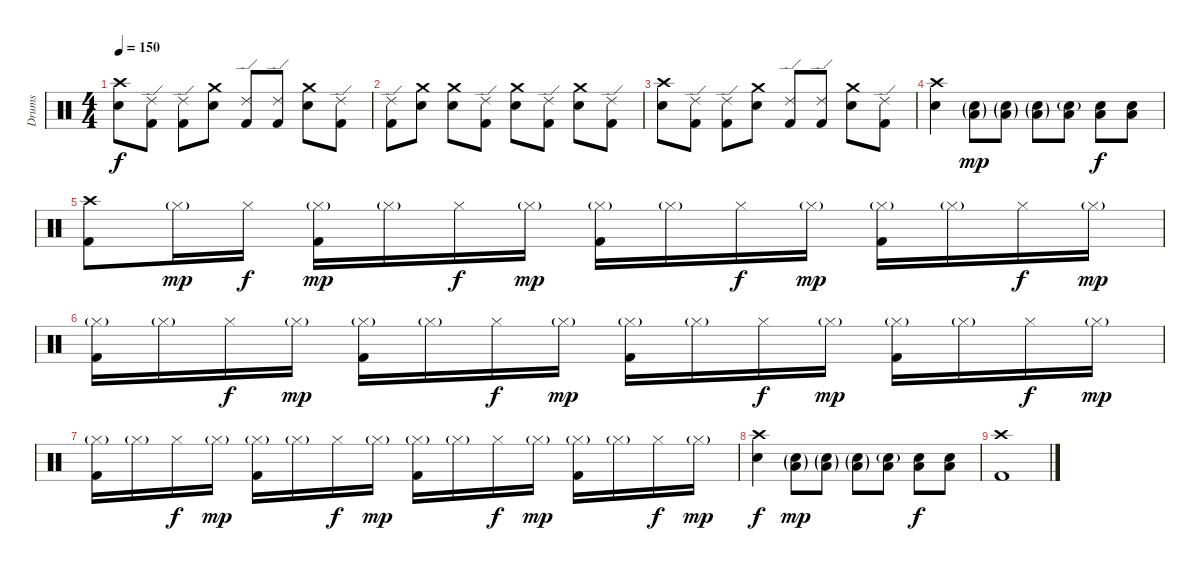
\track ("Drums" "Drums") {instrument percussion}
\staff {score}
\articulation defaults
\ts (4 4)
\tempo 150
\clef neutral
\ks c
("Crash high (hit)" "Electric Snare (hit)").8{dy f} ("Ride (edge) 2" "Kick (hit) 2").8 ("Ride (edge) 2" "Kick (hit) 2").8 ("Crash medium (hit)" "Electric Snare (hit)").8 ("Ride (edge) 2" "Kick (hit) 2").8 ("Ride (edge) 2" "Kick (hit) 2").8 ("Crash medium (hit)" "Electric Snare (hit)").8 ("Ride (edge) 2" "Kick (hit) 2").8 |
("Ride (edge) 2" "Kick (hit) 2").8 ("Crash medium (hit)" "Electric Snare (hit)").8 ("Crash medium (hit)" "Electric Snare (hit)").8 ("Ride (edge) 2" "Kick (hit) 2").8 ("Crash medium (hit)" "Electric Snare (hit)").8 ("Ride (edge) 2" "Kick (hit) 2").8 ("Crash medium (hit)" "Electric Snare (hit)").8 ("Ride (edge) 2" "Kick (hit) 2").8 |
("Crash high (hit)" "Electric Snare (hit)").8 ("Ride (edge) 2" "Kick (hit) 2").8 ("Ride (edge) 2" "Kick (hit) 2").8 ("Crash medium (hit)" "Electric Snare (hit)").8 ("Ride (edge) 2" "Kick (hit) 2").8 ("Ride (edge) 2" "Kick (hit) 2").8 ("Crash medium (hit)" "Electric Snare (hit)").8 ("Ride (edge) 2" "Kick (hit) 2").8 |
("Crash high (hit)" "Electric Snare (hit)").4 ("Low Floor Tom (hit)"{g} "Electric Snare (hit)"{g}).8{dy mp} ("Low Floor Tom (hit)"{g} "Electric Snare (hit)"{g}).8 ("Low Floor Tom (hit)"{g} "Electric Snare (hit)"{g}).8 ("Low Floor Tom (hit)" "Electric Snare (hit)"{g}).8 ("Low Floor Tom (hit)" "Electric Snare (hit)").8{dy f} ("Low Floor Tom (hit)" "Electric Snare (hit)").8 |
("Crash high (hit)" "Kick (hit) 2").8 "Hi-Hat (closed)"{g}.16{dy mp} "Hi-Hat (closed)".16{dy f} ("Hi-Hat (closed)"{g} "Kick (hit) 2").16{dy mp} "Hi-Hat (closed)"{g}.16 "Hi-Hat (closed)".16{dy f} "Hi-Hat (closed)"{g}.16{dy mp} ("Hi-Hat (closed)"{g} "Kick (hit) 2").16 "Hi-Hat (closed)"{g}.16 "Hi-Hat (closed)".16{dy f} "Hi-Hat (closed)"{g}.16{dy mp} ("Hi-Hat (closed)"{g} "Kick (hit) 2").16 "Hi-Hat (closed)"{g}.16 "Hi-Hat (closed)".16{dy f} "Hi-Hat (closed)"{g}.16{dy mp} |
("Hi-Hat (closed)"{g} "Kick (hit) 2").16 "Hi-Hat (closed)"{g}.16 "Hi-Hat (closed)".16{dy f} "Hi-Hat (closed)"{g}.16{dy mp} ("Hi-Hat (closed)"{g} "Kick (hit) 2").16 "Hi-Hat (closed)"{g}.16 "Hi-Hat (closed)".16{dy f} "Hi-Hat (closed)"{g}.16{dy mp} ("Hi-Hat (closed)"{g} "Kick (hit) 2").16 "Hi-Hat (closed)"{g}.16 "Hi-Hat (closed)".16{dy f} "Hi-Hat (closed)"{g}.16{dy mp} ("Hi-Hat (closed)"{g} "Kick (hit) 2").16 "Hi-Hat (closed)"{g}.16 "Hi-Hat (closed)".16{dy f} "Hi-Hat (closed)"{g}.16{dy mp} |
("Hi-Hat (closed)"{g} "Kick (hit) 2").16 "Hi-Hat (closed)"{g}.16 "Hi-Hat (closed)".16{dy f} "Hi-Hat (closed)"{g}.16{dy mp} ("Hi-Hat (closed)"{g} "Kick (hit) 2").16 "Hi-Hat (closed)"{g}.16 "Hi-Hat (closed)".16{dy f} "Hi-Hat (closed)"{g}.16{dy mp} ("Hi-Hat (closed)"{g} "Kick (hit) 2").16 "Hi-Hat (closed)"{g}.16 "Hi-Hat (closed)".16{dy f} "Hi-Hat (closed)"{g}.16{dy mp} ("Hi-Hat (closed)"{g} "Kick (hit) 2").16 "Hi-Hat (closed)"{g}.16 "Hi-Hat (closed)".16{dy f} "Hi-Hat (closed)"{g}.16{dy mp} |
("Crash high (hit)" "Electric Snare (hit)").4{dy f} ("Low Floor Tom (hit)"{g} "Electric Snare (hit)"{g}).8{dy mp} ("Low Floor Tom (hit)"{g} "Electric Snare (hit)"{g}).8 ("Low Floor Tom (hit)"{g} "Electric Snare (hit)"{g}).8 ("Low Floor Tom (hit)" "Electric Snare (hit)"{g}).8 ("Low Floor Tom (hit)" "Electric Snare (hit)").8{dy f} ("Low Floor Tom (hit)" "Electric Snare (hit)").8 |
("Crash high (hit)" "Kick (hit) 2").1
